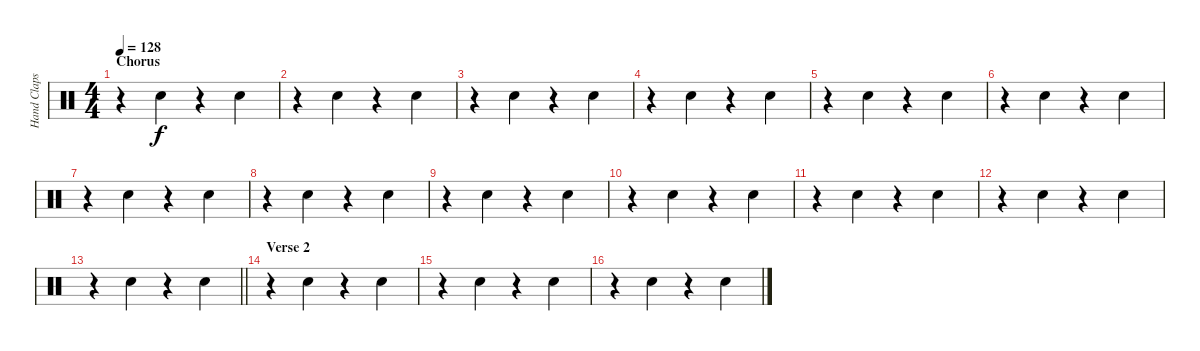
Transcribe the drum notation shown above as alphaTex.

\track ("Hand Claps" "Hand Claps") {instrument percussion}
\staff {score}
\articulation defaults
\ts (4 4)
\section ("" "Chorus")
\tempo 128
\clef neutral
\ks c
r.4{dy f} "Hand Clap (hit)".4 r.4 "Hand Clap (hit)".4 |
r.4 "Hand Clap (hit)".4 r.4 "Hand Clap (hit)".4 |
r.4 "Hand Clap (hit)".4 r.4 "Hand Clap (hit)".4 |
r.4 "Hand Clap (hit)".4 r.4 "Hand Clap (hit)".4 |
r.4 "Hand Clap (hit)".4 r.4 "Hand Clap (hit)".4 |
r.4 "Hand Clap (hit)".4 r.4 "Hand Clap (hit)".4 |
r.4 "Hand Clap (hit)".4 r.4 "Hand Clap (hit)".4 |
r.4 "Hand Clap (hit)".4 r.4 "Hand Clap (hit)".4 |
r.4 "Hand Clap (hit)".4 r.4 "Hand Clap (hit)".4 |
r.4 "Hand Clap (hit)".4 r.4 "Hand Clap (hit)".4 |
r.4 "Hand Clap (hit)".4 r.4 "Hand Clap (hit)".4 |
r.4 "Hand Clap (hit)".4 r.4 "Hand Clap (hit)".4 |
\barLineRight lightlight
r.4 "Hand Clap (hit)".4 r.4 "Hand Clap (hit)".4 |
\section ("" "Verse 2")
r.4 "Hand Clap (hit)".4 r.4 "Hand Clap (hit)".4 |
r.4 "Hand Clap (hit)".4 r.4 "Hand Clap (hit)".4 |
r.4 "Hand Clap (hit)".4 r.4 "Hand Clap (hit)".4
